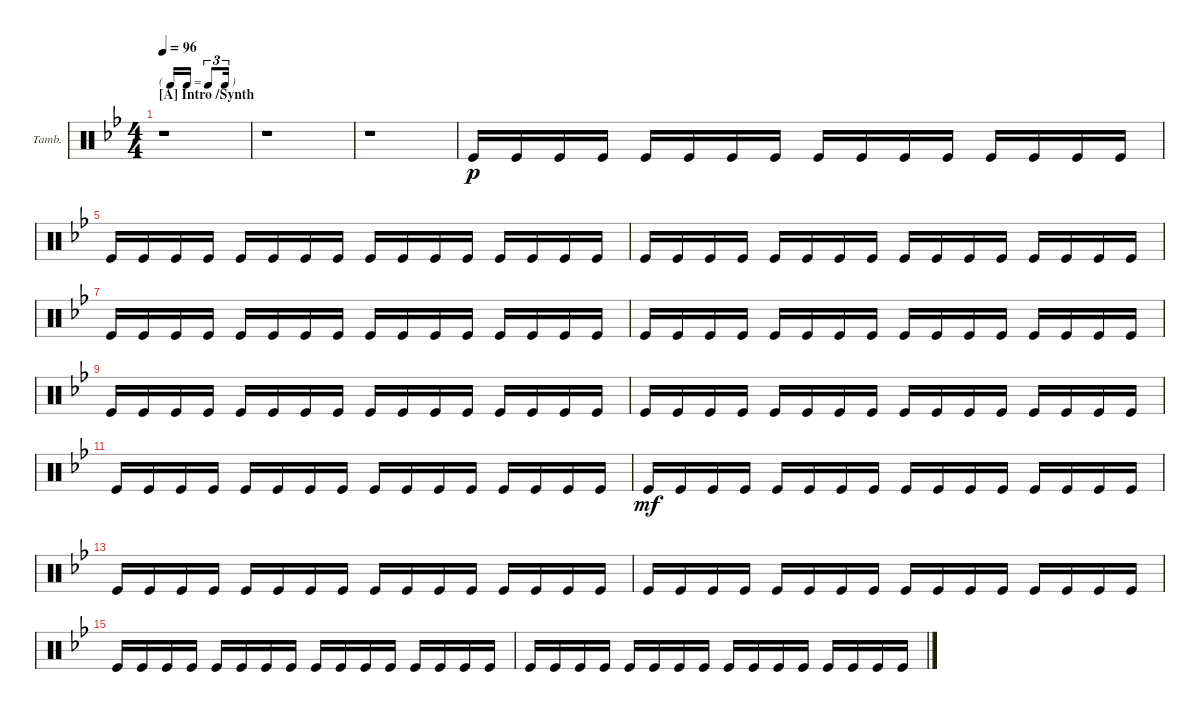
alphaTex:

\bracketExtendMode nobrackets
\firstSystemTrackNameOrientation horizontal
\otherSystemsTrackNameOrientation horizontal
\defaultBarNumberDisplay FirstOfSystem
\track ("Tambourine" "Tamb.") {instrument percussion}
\staff {score}
\articulation defaults
\ts (4 4)
\tf triplet16th
\section ("A" "Intro /Synth")
\tempo 96
\clef neutral
\scale
0.512821
\ks bb
r.1{dy p} |
\scale
0.24359 r.1 |
\scale
0.24359 r.1 |
\scale
0.333333 "Kick (hit)".16 "Kick (hit)".16 "Kick (hit)".16 "Kick (hit)".16 "Kick (hit)".16 "Kick (hit)".16 "Kick (hit)".16 "Kick (hit)".16 "Kick (hit)".16 "Kick (hit)".16 "Kick (hit)".16 "Kick (hit)".16 "Kick (hit)".16 "Kick (hit)".16 "Kick (hit)".16 "Kick (hit)".16 |
\scale
0.333333 "Kick (hit)".16 "Kick (hit)".16 "Kick (hit)".16 "Kick (hit)".16 "Kick (hit)".16 "Kick (hit)".16 "Kick (hit)".16 "Kick (hit)".16 "Kick (hit)".16 "Kick (hit)".16 "Kick (hit)".16 "Kick (hit)".16 "Kick (hit)".16 "Kick (hit)".16 "Kick (hit)".16 "Kick (hit)".16 |
"Kick (hit)".16 "Kick (hit)".16 "Kick (hit)".16 "Kick (hit)".16 "Kick (hit)".16 "Kick (hit)".16 "Kick (hit)".16 "Kick (hit)".16 "Kick (hit)".16 "Kick (hit)".16 "Kick (hit)".16 "Kick (hit)".16 "Kick (hit)".16 "Kick (hit)".16 "Kick (hit)".16 "Kick (hit)".16 |
\scale
0.333333 "Kick (hit)".16 "Kick (hit)".16 "Kick (hit)".16 "Kick (hit)".16 "Kick (hit)".16 "Kick (hit)".16 "Kick (hit)".16 "Kick (hit)".16 "Kick (hit)".16 "Kick (hit)".16 "Kick (hit)".16 "Kick (hit)".16 "Kick (hit)".16 "Kick (hit)".16 "Kick (hit)".16 "Kick (hit)".16 |
\scale
0.333333 "Kick (hit)".16 "Kick (hit)".16 "Kick (hit)".16 "Kick (hit)".16 "Kick (hit)".16 "Kick (hit)".16 "Kick (hit)".16 "Kick (hit)".16 "Kick (hit)".16 "Kick (hit)".16 "Kick (hit)".16 "Kick (hit)".16 "Kick (hit)".16 "Kick (hit)".16 "Kick (hit)".16 "Kick (hit)".16 |
\scale
0.333333 "Kick (hit)".16 "Kick (hit)".16 "Kick (hit)".16 "Kick (hit)".16 "Kick (hit)".16 "Kick (hit)".16 "Kick (hit)".16 "Kick (hit)".16 "Kick (hit)".16 "Kick (hit)".16 "Kick (hit)".16 "Kick (hit)".16 "Kick (hit)".16 "Kick (hit)".16 "Kick (hit)".16 "Kick (hit)".16 |
\scale
0.333333 "Kick (hit)".16 "Kick (hit)".16 "Kick (hit)".16 "Kick (hit)".16 "Kick (hit)".16 "Kick (hit)".16 "Kick (hit)".16 "Kick (hit)".16 "Kick (hit)".16 "Kick (hit)".16 "Kick (hit)".16 "Kick (hit)".16 "Kick (hit)".16 "Kick (hit)".16 "Kick (hit)".16 "Kick (hit)".16 |
\scale
0.333333 "Kick (hit)".16 "Kick (hit)".16 "Kick (hit)".16 "Kick (hit)".16 "Kick (hit)".16 "Kick (hit)".16 "Kick (hit)".16 "Kick (hit)".16 "Kick (hit)".16 "Kick (hit)".16 "Kick (hit)".16 "Kick (hit)".16 "Kick (hit)".16 "Kick (hit)".16 "Kick (hit)".16 "Kick (hit)".16 |
\scale
0.333333 "Kick (hit)".16{dy mf} "Kick (hit)".16 "Kick (hit)".16 "Kick (hit)".16 "Kick (hit)".16 "Kick (hit)".16 "Kick (hit)".16 "Kick (hit)".16 "Kick (hit)".16 "Kick (hit)".16 "Kick (hit)".16 "Kick (hit)".16 "Kick (hit)".16 "Kick (hit)".16 "Kick (hit)".16 "Kick (hit)".16 |
\scale
0.333333 "Kick (hit)".16 "Kick (hit)".16 "Kick (hit)".16 "Kick (hit)".16 "Kick (hit)".16 "Kick (hit)".16 "Kick (hit)".16 "Kick (hit)".16 "Kick (hit)".16 "Kick (hit)".16 "Kick (hit)".16 "Kick (hit)".16 "Kick (hit)".16 "Kick (hit)".16 "Kick (hit)".16 "Kick (hit)".16 |
\scale
0.333333 "Kick (hit)".16 "Kick (hit)".16 "Kick (hit)".16 "Kick (hit)".16 "Kick (hit)".16 "Kick (hit)".16 "Kick (hit)".16 "Kick (hit)".16 "Kick (hit)".16 "Kick (hit)".16 "Kick (hit)".16 "Kick (hit)".16 "Kick (hit)".16 "Kick (hit)".16 "Kick (hit)".16 "Kick (hit)".16 |
\scale
0.333333 "Kick (hit)".16 "Kick (hit)".16 "Kick (hit)".16 "Kick (hit)".16 "Kick (hit)".16 "Kick (hit)".16 "Kick (hit)".16 "Kick (hit)".16 "Kick (hit)".16 "Kick (hit)".16 "Kick (hit)".16 "Kick (hit)".16 "Kick (hit)".16 "Kick (hit)".16 "Kick (hit)".16 "Kick (hit)".16 |
\scale
0.333333 "Kick (hit)".16 "Kick (hit)".16 "Kick (hit)".16 "Kick (hit)".16 "Kick (hit)".16 "Kick (hit)".16 "Kick (hit)".16 "Kick (hit)".16 "Kick (hit)".16 "Kick (hit)".16 "Kick (hit)".16 "Kick (hit)".16 "Kick (hit)".16 "Kick (hit)".16 "Kick (hit)".16 "Kick (hit)".16
